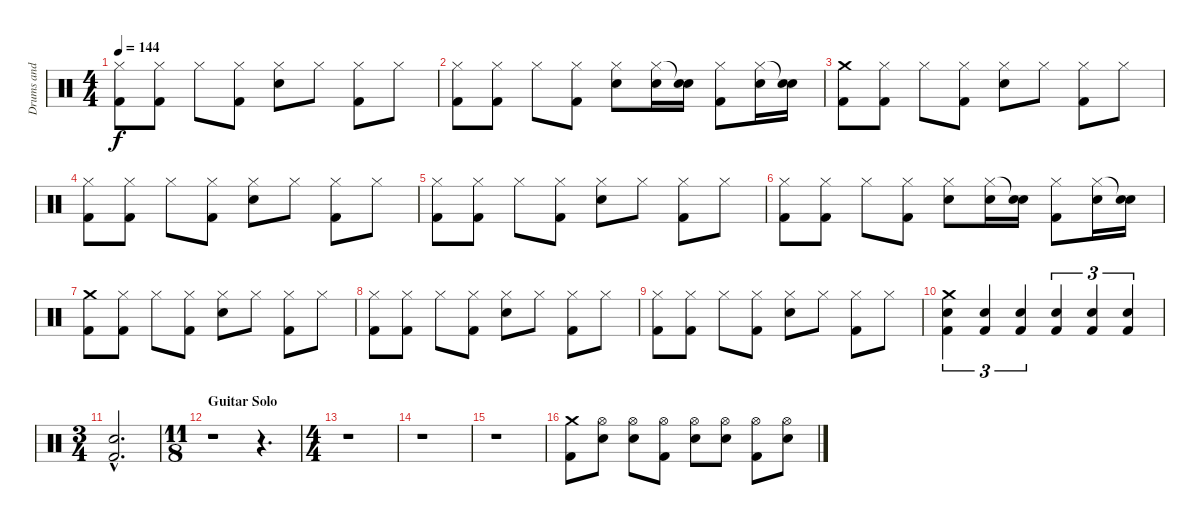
\track ("Drums and Percussion" "Drums and ") {instrument percussion}
\staff {score}
\articulation defaults
\ts (4 4)
\tempo 144
\clef neutral
\ks c
("Hi-Hat (closed)" "Kick (hit) 2").8{dy f} ("Hi-Hat (closed)" "Kick (hit) 2").8 "Hi-Hat (closed)".8 ("Hi-Hat (closed)" "Kick (hit) 2").8 ("Hi-Hat (closed)" "Electric Snare (hit)").8 "Hi-Hat (closed)".8 ("Hi-Hat (closed)" "Kick (hit) 2").8 "Hi-Hat (closed)".8 |
("Hi-Hat (closed)" "Kick (hit) 2").8 ("Hi-Hat (closed)" "Kick (hit) 2").8 "Hi-Hat (closed)".8 ("Hi-Hat (closed)" "Kick (hit) 2").8 ("Hi-Hat (closed)" "Electric Snare (hit)").8 ("Hi-Hat (closed)" "Electric Snare (hit)").16 ("Snare (hit)"{t} "Electric Snare (hit)").16 ("Hi-Hat (closed)" "Kick (hit) 2").8 ("Hi-Hat (closed)" "Electric Snare (hit)").16 ("Snare (hit)"{t} "Electric Snare (hit)").16 |
("Crash medium (hit)" "Kick (hit) 2").8 ("Hi-Hat (closed)" "Kick (hit) 2").8 "Hi-Hat (closed)".8 ("Hi-Hat (closed)" "Kick (hit) 2").8 ("Hi-Hat (closed)" "Electric Snare (hit)").8 "Hi-Hat (closed)".8 ("Hi-Hat (closed)" "Kick (hit) 2").8 "Hi-Hat (closed)".8 |
("Hi-Hat (closed)" "Kick (hit) 2").8 ("Hi-Hat (closed)" "Kick (hit) 2").8 "Hi-Hat (closed)".8 ("Hi-Hat (closed)" "Kick (hit) 2").8 ("Hi-Hat (closed)" "Electric Snare (hit)").8 "Hi-Hat (closed)".8 ("Hi-Hat (closed)" "Kick (hit) 2").8 "Hi-Hat (closed)".8 |
("Hi-Hat (closed)" "Kick (hit) 2").8 ("Hi-Hat (closed)" "Kick (hit) 2").8 "Hi-Hat (closed)".8 ("Hi-Hat (closed)" "Kick (hit) 2").8 ("Hi-Hat (closed)" "Electric Snare (hit)").8 "Hi-Hat (closed)".8 ("Hi-Hat (closed)" "Kick (hit) 2").8 "Hi-Hat (closed)".8 |
("Hi-Hat (closed)" "Kick (hit) 2").8 ("Hi-Hat (closed)" "Kick (hit) 2").8 "Hi-Hat (closed)".8 ("Hi-Hat (closed)" "Kick (hit) 2").8 ("Hi-Hat (closed)" "Electric Snare (hit)").8 ("Hi-Hat (closed)" "Electric Snare (hit)").16 ("Snare (hit)"{t} "Electric Snare (hit)").16 ("Hi-Hat (closed)" "Kick (hit) 2").8 ("Hi-Hat (closed)" "Electric Snare (hit)").16 ("Snare (hit)"{t} "Electric Snare (hit)").16 |
("Crash medium (hit)" "Kick (hit) 2").8 ("Hi-Hat (closed)" "Kick (hit) 2").8 "Hi-Hat (closed)".8 ("Hi-Hat (closed)" "Kick (hit) 2").8 ("Hi-Hat (closed)" "Electric Snare (hit)").8 "Hi-Hat (closed)".8 ("Hi-Hat (closed)" "Kick (hit) 2").8 "Hi-Hat (closed)".8 |
("Hi-Hat (closed)" "Kick (hit) 2").8 ("Hi-Hat (closed)" "Kick (hit) 2").8 "Hi-Hat (closed)".8 ("Hi-Hat (closed)" "Kick (hit) 2").8 ("Hi-Hat (closed)" "Electric Snare (hit)").8 "Hi-Hat (closed)".8 ("Hi-Hat (closed)" "Kick (hit) 2").8 "Hi-Hat (closed)".8 |
("Hi-Hat (closed)" "Kick (hit) 2").8 ("Hi-Hat (closed)" "Kick (hit) 2").8 "Hi-Hat (closed)".8 ("Hi-Hat (closed)" "Kick (hit) 2").8 ("Hi-Hat (closed)" "Electric Snare (hit)").8 "Hi-Hat (closed)".8 ("Hi-Hat (closed)" "Kick (hit) 2").8 "Hi-Hat (closed)".8 |
("Crash medium (hit)" "Electric Snare (hit)" "Kick (hit) 2").4{tu (3 2)} ("Electric Snare (hit)" "Kick (hit) 2").4{tu (3 2)} ("Electric Snare (hit)" "Kick (hit) 2").4{tu (3 2)} ("Electric Snare (hit)" "Kick (hit) 2").4{tu (3 2)} ("Electric Snare (hit)" "Kick (hit) 2").4{tu (3 2)} ("Electric Snare (hit)" "Kick (hit) 2").4{tu (3 2)} |
\ts (3 4)
("Electric Snare (hit)"{hac} "Kick (hit) 2"{hac}).2{d} |
\ts (11 8)
\section ("" "Guitar Solo")
r.1 r.4{d} |
\ts (4 4)
r.1 |
r.1 |
r.1 |
("Crash medium (hit)" "Kick (hit) 2").8 ("Hi-Hat (open)" "Electric Snare (hit)").8 ("Hi-Hat (open)" "Electric Snare (hit)").8 ("Hi-Hat (open)" "Kick (hit) 2").8 ("Hi-Hat (open)" "Electric Snare (hit)").8 ("Hi-Hat (open)" "Electric Snare (hit)").8 ("Hi-Hat (open)" "Kick (hit) 2").8 ("Hi-Hat (open)" "Electric Snare (hit)").8
